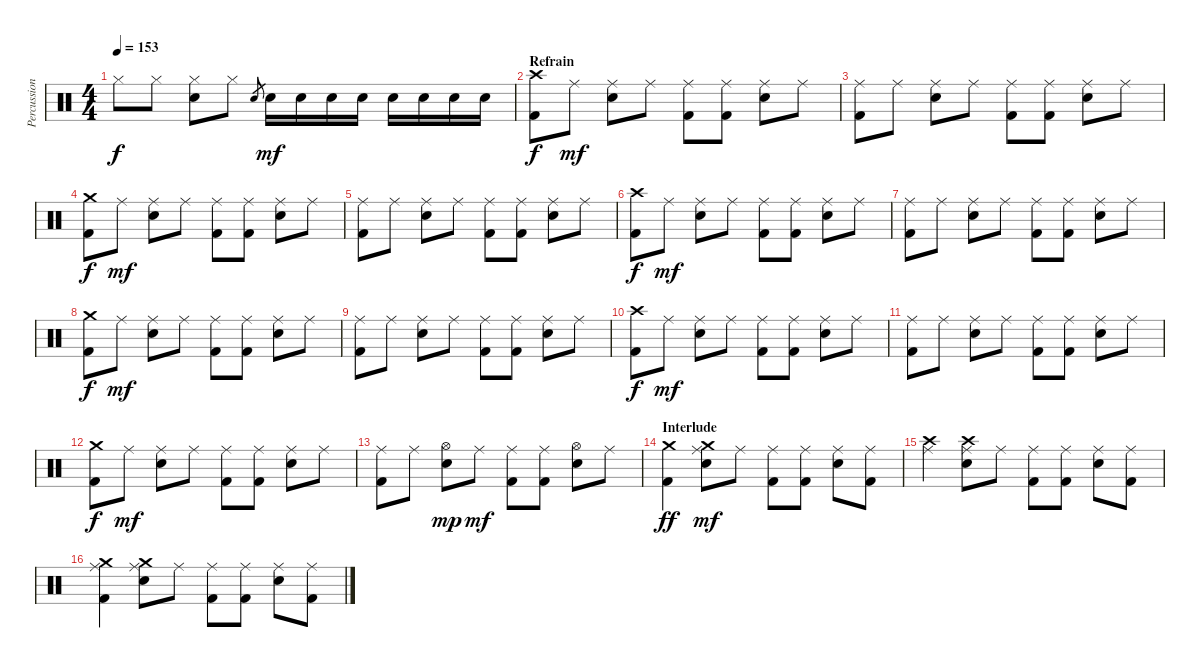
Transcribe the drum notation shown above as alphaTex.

\track ("Percussion" "Percussion") {instrument percussion}
\staff {score}
\articulation defaults
\ts (4 4)
\tempo 153
\clef neutral
\ks c "Hi-Hat (closed)".8{dy f} "Hi-Hat (closed)".8
("Hi-Hat (closed)" "Electric Snare (hit)").8 "Hi-Hat (closed)".8 "Electric Snare (hit)".8{gr} "Electric Snare (hit)".16{dy mf} "Electric Snare (hit)".16 "Electric Snare (hit)".16 "Electric Snare (hit)".16 "Snare (hit) 2".16 "Snare (hit) 2".16 "Snare (hit) 2".16 "Snare (hit) 2".16 |
\section ("" "Refrain")
("Crash high (hit)" "Kick (hit) 2").8{dy f} "Ride (middle)".8{dy mf} ("Ride (middle)" "Electric Snare (hit)").8 "Ride (middle)".8 ("Ride (middle)" "Kick (hit) 2").8 ("Ride (middle)" "Kick (hit) 2").8 ("Ride (middle)" "Electric Snare (hit)").8 "Ride (middle)".8 |
("Ride (middle)" "Kick (hit) 2").8 "Ride (middle)".8 ("Ride (middle)" "Electric Snare (hit)").8 "Ride (middle)".8 ("Ride (middle)" "Kick (hit) 2").8 ("Ride (middle)" "Kick (hit) 2").8 ("Ride (middle)" "Electric Snare (hit)").8 "Ride (middle)".8 |
("Crash medium (hit)" "Kick (hit) 2").8{dy f} "Ride (middle)".8{dy mf} ("Ride (middle)" "Electric Snare (hit)").8 "Ride (middle)".8 ("Ride (middle)" "Kick (hit) 2").8 ("Ride (middle)" "Kick (hit) 2").8 ("Ride (middle)" "Electric Snare (hit)").8 "Ride (middle)".8 |
("Ride (middle)" "Kick (hit) 2").8 "Ride (middle)".8 ("Ride (middle)" "Electric Snare (hit)").8 "Ride (middle)".8 ("Ride (middle)" "Kick (hit) 2").8 ("Ride (middle)" "Kick (hit) 2").8 ("Ride (middle)" "Electric Snare (hit)").8 "Ride (middle)".8 |
("Crash high (hit)" "Kick (hit) 2").8{dy f} "Ride (middle)".8{dy mf} ("Ride (middle)" "Electric Snare (hit)").8 "Ride (middle)".8 ("Ride (middle)" "Kick (hit) 2").8 ("Ride (middle)" "Kick (hit) 2").8 ("Ride (middle)" "Electric Snare (hit)").8 "Ride (middle)".8 |
("Ride (middle)" "Kick (hit) 2").8 "Ride (middle)".8 ("Ride (middle)" "Electric Snare (hit)").8 "Ride (middle)".8 ("Ride (middle)" "Kick (hit) 2").8 ("Ride (middle)" "Kick (hit) 2").8 ("Ride (middle)" "Electric Snare (hit)").8 "Ride (middle)".8 |
("Crash medium (hit)" "Kick (hit) 2").8{dy f} "Ride (middle)".8{dy mf} ("Ride (middle)" "Electric Snare (hit)").8 "Ride (middle)".8 ("Ride (middle)" "Kick (hit) 2").8 ("Ride (middle)" "Kick (hit) 2").8 ("Ride (middle)" "Electric Snare (hit)").8 "Ride (middle)".8 |
("Ride (middle)" "Kick (hit) 2").8 "Ride (middle)".8 ("Ride (middle)" "Electric Snare (hit)").8 "Ride (middle)".8 ("Ride (middle)" "Kick (hit) 2").8 ("Ride (middle)" "Kick (hit) 2").8 ("Ride (middle)" "Electric Snare (hit)").8 "Ride (middle)".8 |
("Crash high (hit)" "Kick (hit) 2").8{dy f} "Ride (middle)".8{dy mf} ("Ride (middle)" "Electric Snare (hit)").8 "Ride (middle)".8 ("Ride (middle)" "Kick (hit) 2").8 ("Ride (middle)" "Kick (hit) 2").8 ("Ride (middle)" "Electric Snare (hit)").8 "Ride (middle)".8 |
("Ride (middle)" "Kick (hit) 2").8 "Ride (middle)".8 ("Ride (middle)" "Electric Snare (hit)").8 "Ride (middle)".8 ("Ride (middle)" "Kick (hit) 2").8 ("Ride (middle)" "Kick (hit) 2").8 ("Ride (middle)" "Electric Snare (hit)").8 "Ride (middle)".8 |
("Crash medium (hit)" "Kick (hit) 2").8{dy f} "Ride (middle)".8{dy mf} ("Ride (middle)" "Electric Snare (hit)").8 "Ride (middle)".8 ("Ride (middle)" "Kick (hit) 2").8 ("Ride (middle)" "Kick (hit) 2").8 ("Ride (middle)" "Electric Snare (hit)").8 "Ride (middle)".8 |
("Ride (middle)" "Kick (hit) 2").8 "Ride (middle)".8 ("Hi-Hat (open)" "Electric Snare (hit)").8{dy mp} "Ride (middle)".8{dy mf} ("Ride (middle)" "Kick (hit) 2").8 ("Ride (middle)" "Kick (hit) 2").8 ("Hi-Hat (open)" "Electric Snare (hit)").8 "Ride (middle)".8 |
\section ("" "Interlude")
("Crash medium (hit)" "Kick (hit) 2").4{dy ff} ("Crash medium (hit)" "Ride (middle)" "Electric Snare (hit)").8{dy mf} "Ride (middle)".8 ("Ride (middle)" "Kick (hit) 2").8 ("Ride (middle)" "Kick (hit) 2").8 ("Ride (middle)" "Electric Snare (hit)").8 ("Ride (middle)" "Kick (hit) 2").8 |
("Crash high (hit)" "Ride (middle)").4 ("Crash high (hit)" "Ride (middle)" "Electric Snare (hit)").8 "Ride (middle)".8 ("Ride (middle)" "Kick (hit) 2").8 ("Ride (middle)" "Kick (hit) 2").8 ("Ride (middle)" "Electric Snare (hit)").8 ("Ride (middle)" "Kick (hit) 2").8 |
("Crash medium (hit)" "Ride (middle)" "Kick (hit) 2").4 ("Crash medium (hit)" "Ride (middle)" "Electric Snare (hit)").8 "Ride (middle)".8 ("Ride (middle)" "Kick (hit) 2").8 ("Ride (middle)" "Kick (hit) 2").8 ("Ride (middle)" "Electric Snare (hit)").8 ("Ride (middle)" "Kick (hit) 2").8
